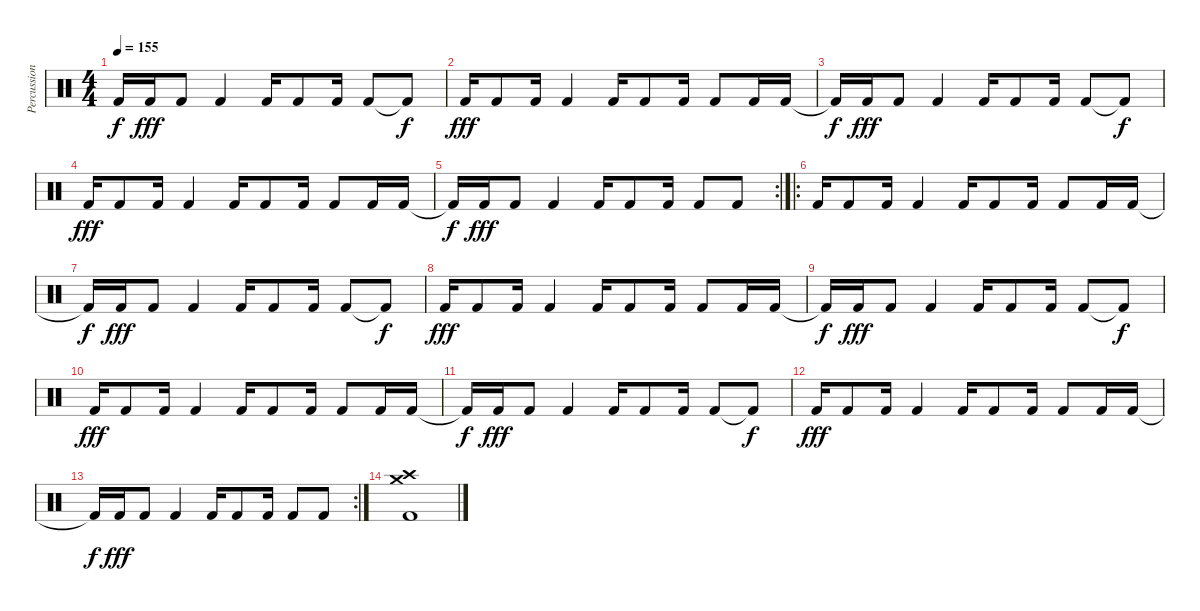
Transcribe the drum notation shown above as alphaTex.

\track ("Percussion (Francisco Izquierdo)" "Percussion") {instrument percussion}
\staff {score}
\articulation defaults
\ts (4 4)
\tempo 155
\clef neutral
\ks c "Kick (hit) 2"{t}.16{dy f} "Kick (hit) 2".16{dy fff} "Kick (hit) 2".8 "Kick (hit) 2".4 "Kick (hit) 2".16 "Kick (hit) 2".8 "Kick (hit) 2".16 "Kick (hit) 2".8 "Kick (hit) 2"{t}.8{dy f}
|
"Kick (hit) 2".16{dy fff} "Kick (hit) 2".8 "Kick (hit) 2".16 "Kick (hit) 2".4 "Kick (hit) 2".16 "Kick (hit) 2".8 "Kick (hit) 2".16 "Kick (hit) 2".8 "Kick (hit) 2".16 "Kick (hit) 2".16 |
"Kick (hit) 2"{t}.16{dy f} "Kick (hit) 2".16{dy fff} "Kick (hit) 2".8 "Kick (hit) 2".4 "Kick (hit) 2".16 "Kick (hit) 2".8 "Kick (hit) 2".16 "Kick (hit) 2".8 "Kick (hit) 2"{t}.8{dy f} |
"Kick (hit) 2".16{dy fff} "Kick (hit) 2".8 "Kick (hit) 2".16 "Kick (hit) 2".4 "Kick (hit) 2".16 "Kick (hit) 2".8 "Kick (hit) 2".16 "Kick (hit) 2".8 "Kick (hit) 2".16 "Kick (hit) 2".16 |
\rc 2 "Kick (hit) 2"{t}.16{dy f} "Kick (hit) 2".16{dy fff} "Kick (hit) 2".8 "Kick (hit) 2".4 "Kick (hit) 2".16 "Kick (hit) 2".8 "Kick (hit) 2".16 "Kick (hit) 2".8 "Kick (hit) 2".8
|
\ro "Kick (hit) 2".16 "Kick (hit) 2".8 "Kick (hit) 2".16 "Kick (hit) 2".4 "Kick (hit) 2".16 "Kick (hit) 2".8 "Kick (hit) 2".16 "Kick (hit) 2".8 "Kick (hit) 2".16 "Kick (hit) 2".16
|
"Kick (hit) 2"{t}.16{dy f} "Kick (hit) 2".16{dy fff} "Kick (hit) 2".8 "Kick (hit) 2".4 "Kick (hit) 2".16 "Kick (hit) 2".8 "Kick (hit) 2".16 "Kick (hit) 2".8 "Kick (hit) 2"{t}.8{dy f} |
"Kick (hit) 2".16{dy fff} "Kick (hit) 2".8 "Kick (hit) 2".16 "Kick (hit) 2".4 "Kick (hit) 2".16 "Kick (hit) 2".8 "Kick (hit) 2".16 "Kick (hit) 2".8 "Kick (hit) 2".16 "Kick (hit) 2".16 |
"Kick (hit) 2"{t}.16{dy f} "Kick (hit) 2".16{dy fff} "Kick (hit) 2".8 "Kick (hit) 2".4 "Kick (hit) 2".16 "Kick (hit) 2".8 "Kick (hit) 2".16 "Kick (hit) 2".8 "Kick (hit) 2"{t}.8{dy f} |
"Kick (hit) 2".16{dy fff} "Kick (hit) 2".8 "Kick (hit) 2".16 "Kick (hit) 2".4 "Kick (hit) 2".16 "Kick (hit) 2".8 "Kick (hit) 2".16 "Kick (hit) 2".8 "Kick (hit) 2".16 "Kick (hit) 2".16 |
"Kick (hit) 2"{t}.16{dy f} "Kick (hit) 2".16{dy fff} "Kick (hit) 2".8 "Kick (hit) 2".4 "Kick (hit) 2".16 "Kick (hit) 2".8 "Kick (hit) 2".16 "Kick (hit) 2".8 "Kick (hit) 2"{t}.8{dy f} |
"Kick (hit) 2".16{dy fff} "Kick (hit) 2".8 "Kick (hit) 2".16 "Kick (hit) 2".4 "Kick (hit) 2".16 "Kick (hit) 2".8 "Kick (hit) 2".16 "Kick (hit) 2".8 "Kick (hit) 2".16 "Kick (hit) 2".16 |
\rc 2 "Kick (hit) 2"{t}.16{dy f} "Kick (hit) 2".16{dy fff} "Kick (hit) 2".8 "Kick (hit) 2".4 "Kick (hit) 2".16 "Kick (hit) 2".8 "Kick (hit) 2".16 "Kick (hit) 2".8 "Kick (hit) 2".8
|
("Crash high (hit)" "Crash medium (hit)" "Kick (hit) 2").1
